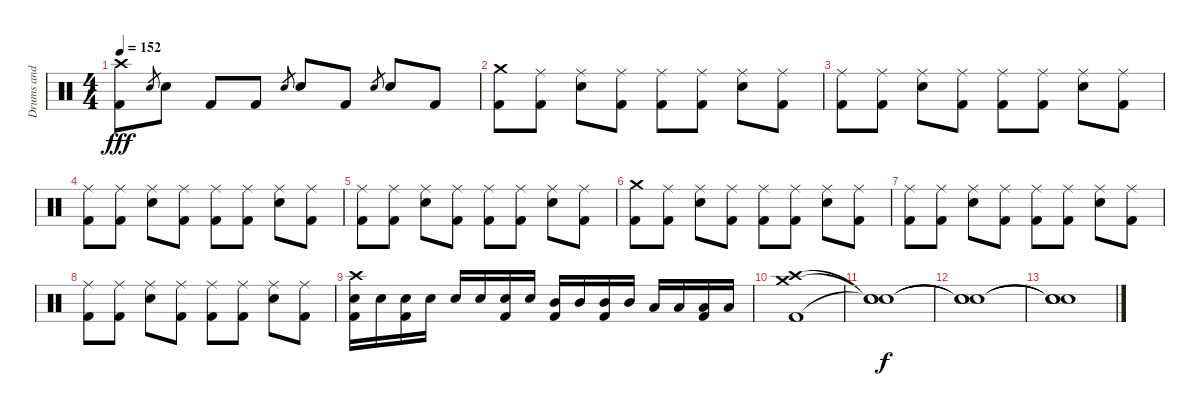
\track ("Drums and Percussion" "Drums and ") {instrument percussion}
\staff {score}
\articulation defaults
\ts (4 4)
\tempo 152
\clef neutral
\ks c
("Crash high (hit)" "Kick (hit) 2").8{dy fff} "Snare (hit) 2".8{gr} "Snare (hit) 2".8 "Kick (hit) 2".8 "Kick (hit) 2".8 "Snare (hit) 2".8{gr} "Snare (hit) 2".8 "Kick (hit) 2".8 "Snare (hit) 2".8{gr} "Snare (hit) 2".8 "Kick (hit) 2".8 |
("Crash medium (hit)" "Kick (hit) 2").8 ("Ride (middle)" "Kick (hit) 2").8 ("Ride (middle)" "Snare (hit) 2").8 ("Ride (middle)" "Kick (hit) 2").8 ("Ride (middle)" "Kick (hit) 2").8 ("Ride (middle)" "Kick (hit) 2").8 ("Ride (middle)" "Snare (hit) 2").8 ("Ride (middle)" "Kick (hit) 2").8 |
("Ride (middle)" "Kick (hit) 2").8 ("Ride (middle)" "Kick (hit) 2").8 ("Ride (middle)" "Snare (hit) 2").8 ("Ride (middle)" "Kick (hit) 2").8 ("Ride (middle)" "Kick (hit) 2").8 ("Ride (middle)" "Kick (hit) 2").8 ("Ride (middle)" "Snare (hit) 2").8 ("Ride (middle)" "Kick (hit) 2").8 |
("Ride (middle)" "Kick (hit) 2").8 ("Ride (middle)" "Kick (hit) 2").8 ("Ride (middle)" "Snare (hit) 2").8 ("Ride (middle)" "Kick (hit) 2").8 ("Ride (middle)" "Kick (hit) 2").8 ("Ride (middle)" "Kick (hit) 2").8 ("Ride (middle)" "Snare (hit) 2").8 ("Ride (middle)" "Kick (hit) 2").8 |
("Ride (middle)" "Kick (hit) 2").8 ("Ride (middle)" "Kick (hit) 2").8 ("Ride (middle)" "Snare (hit) 2").8 ("Ride (middle)" "Kick (hit) 2").8 ("Ride (middle)" "Kick (hit) 2").8 ("Ride (middle)" "Kick (hit) 2").8 ("Ride (middle)" "Snare (hit) 2").8 ("Ride (middle)" "Kick (hit) 2").8 |
("Crash medium (hit)" "Kick (hit) 2").8 ("Ride (middle)" "Kick (hit) 2").8 ("Ride (middle)" "Snare (hit) 2").8 ("Ride (middle)" "Kick (hit) 2").8 ("Ride (middle)" "Kick (hit) 2").8 ("Ride (middle)" "Kick (hit) 2").8 ("Ride (middle)" "Snare (hit) 2").8 ("Ride (middle)" "Kick (hit) 2").8 |
("Ride (middle)" "Kick (hit) 2").8 ("Ride (middle)" "Kick (hit) 2").8 ("Ride (middle)" "Snare (hit) 2").8 ("Ride (middle)" "Kick (hit) 2").8 ("Ride (middle)" "Kick (hit) 2").8 ("Ride (middle)" "Kick (hit) 2").8 ("Ride (middle)" "Snare (hit) 2").8 ("Ride (middle)" "Kick (hit) 2").8 |
("Ride (middle)" "Kick (hit) 2").8 ("Ride (middle)" "Kick (hit) 2").8 ("Ride (middle)" "Snare (hit) 2").8 ("Ride (middle)" "Kick (hit) 2").8 ("Ride (middle)" "Kick (hit) 2").8 ("Ride (middle)" "Kick (hit) 2").8 ("Ride (middle)" "Snare (hit) 2").8 ("Ride (middle)" "Kick (hit) 2").8 |
("Crash high (hit)" "Snare (hit) 2" "Kick (hit) 2").16 "Snare (hit) 2".16 ("Snare (hit) 2" "Kick (hit) 2").16 "Snare (hit) 2".16 "Snare (hit) 2".16 "Snare (hit) 2".16 ("Snare (hit) 2" "Kick (hit) 2").16 "Snare (hit) 2".16 ("Mid Tom (hit)" "Kick (hit) 2").16 "Mid Tom (hit)".16 ("Mid Tom (hit)" "Kick (hit) 2").16 "Mid Tom (hit)".16 "Low Tom (hit)".16 "Low Tom (hit)".16 ("Low Tom (hit)" "Kick (hit) 2").16 "Low Tom (hit)".16 |
("Crash medium (hit)" "Crash high (hit)" "Kick (hit) 2").1{volume 0} |
("Snare (hit)"{t} "Snare (hit)"{t} "Snare (hit)"{t}).1{dy f} |
("Snare (hit)"{t} "Snare (hit)"{t} "Snare (hit)"{t}).1 |
("Snare (hit)"{t} "Snare (hit)"{t} "Snare (hit)"{t}).1
